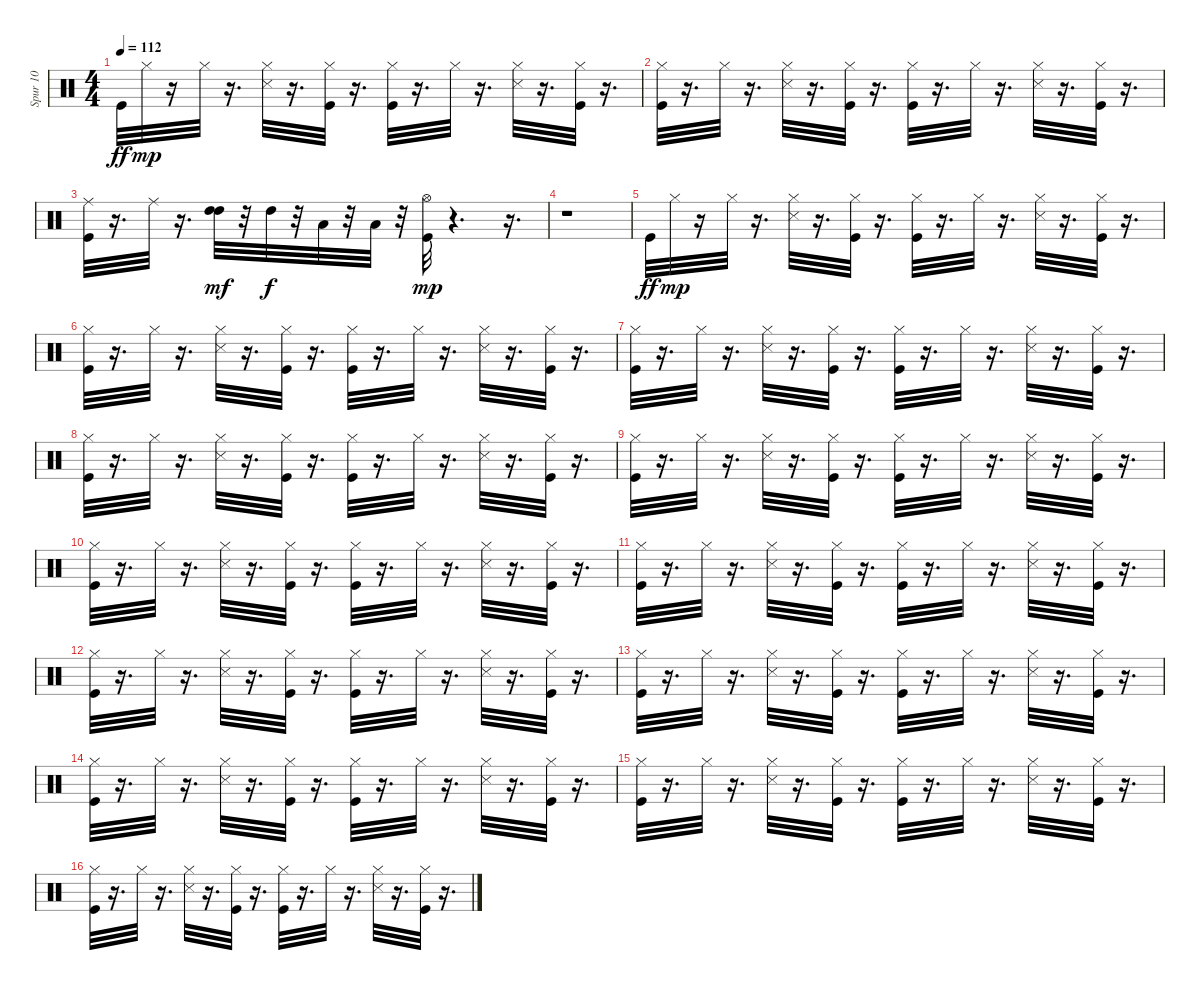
\track ("Spur 10" "Spur 10") {instrument percussion}
\staff {score}
\articulation defaults
\ts (4 4)
\tempo 112
\clef neutral
\ks c "Kick (hit)".32{dy ff} "Hi-Hat (closed)".32{dy mp}
r.16 "Hi-Hat (closed)".32 r.16{d} ("Snare (side stick) 3" "Hi-Hat (closed)").32 r.16{d} ("Kick (hit)" "Hi-Hat (closed)").32 r.16{d} ("Kick (hit)" "Hi-Hat (closed)").32 r.16{d} "Hi-Hat (closed)".32 r.16{d} ("Snare (side stick) 3" "Hi-Hat (closed)").32 r.16{d} ("Kick (hit)" "Hi-Hat (closed)").32 r.16{d} |
("Kick (hit)" "Hi-Hat (closed)").32 r.16{d} "Hi-Hat (closed)".32 r.16{d} ("Snare (side stick) 3" "Hi-Hat (closed)").32 r.16{d} ("Kick (hit)" "Hi-Hat (closed)").32 r.16{d} ("Kick (hit)" "Hi-Hat (closed)").32 r.16{d} "Hi-Hat (closed)".32 r.16{d} ("Snare (side stick) 3" "Hi-Hat (closed)").32 r.16{d} ("Kick (hit)" "Hi-Hat (closed)").32 r.16{d} |
("Ride (middle)" "Kick (hit)").32 r.16{d} "Ride (middle)".32 r.16{d} ("High Tom (hit)" "High Tom (hit)").32{dy mf} r.32 "High Tom (hit)".32{dy f} r.32 "Low Tom (hit)".32 r.32 "Low Floor Tom (hit)".32 r.32 ("Kick (hit)" "Hi-Hat (open)").32{dy mp} r.4{d} r.16{d} |
r.1 |
"Kick (hit)".32{dy ff} "Hi-Hat (closed)".32{dy mp} r.16 "Hi-Hat (closed)".32 r.16{d} ("Snare (side stick) 3" "Hi-Hat (closed)").32 r.16{d} ("Kick (hit)" "Hi-Hat (closed)").32 r.16{d} ("Kick (hit)" "Hi-Hat (closed)").32 r.16{d} "Hi-Hat (closed)".32 r.16{d} ("Snare (side stick) 3" "Hi-Hat (closed)").32 r.16{d} ("Kick (hit)" "Hi-Hat (closed)").32 r.16{d} |
("Kick (hit)" "Hi-Hat (closed)").32 r.16{d} "Hi-Hat (closed)".32 r.16{d} ("Snare (side stick) 3" "Hi-Hat (closed)").32 r.16{d} ("Kick (hit)" "Hi-Hat (closed)").32 r.16{d} ("Kick (hit)" "Hi-Hat (closed)").32 r.16{d} "Hi-Hat (closed)".32 r.16{d} ("Snare (side stick) 3" "Hi-Hat (closed)").32 r.16{d} ("Kick (hit)" "Hi-Hat (closed)").32 r.16{d} |
("Kick (hit)" "Hi-Hat (closed)").32 r.16{d} "Hi-Hat (closed)".32 r.16{d} ("Snare (side stick) 3" "Hi-Hat (closed)").32 r.16{d} ("Kick (hit)" "Hi-Hat (closed)").32 r.16{d} ("Kick (hit)" "Hi-Hat (closed)").32 r.16{d} "Hi-Hat (closed)".32 r.16{d} ("Snare (side stick) 3" "Hi-Hat (closed)").32 r.16{d} ("Kick (hit)" "Hi-Hat (closed)").32 r.16{d} |
("Kick (hit)" "Hi-Hat (closed)").32 r.16{d} "Hi-Hat (closed)".32 r.16{d} ("Snare (side stick) 3" "Hi-Hat (closed)").32 r.16{d} ("Kick (hit)" "Hi-Hat (closed)").32 r.16{d} ("Kick (hit)" "Hi-Hat (closed)").32 r.16{d} "Hi-Hat (closed)".32 r.16{d} ("Snare (side stick) 3" "Hi-Hat (closed)").32 r.16{d} ("Kick (hit)" "Hi-Hat (closed)").32 r.16{d} |
("Kick (hit)" "Hi-Hat (closed)").32 r.16{d} "Hi-Hat (closed)".32 r.16{d} ("Snare (side stick) 3" "Hi-Hat (closed)").32 r.16{d} ("Kick (hit)" "Hi-Hat (closed)").32 r.16{d} ("Kick (hit)" "Hi-Hat (closed)").32 r.16{d} "Hi-Hat (closed)".32 r.16{d} ("Snare (side stick) 3" "Hi-Hat (closed)").32 r.16{d} ("Kick (hit)" "Hi-Hat (closed)").32 r.16{d} |
("Kick (hit)" "Hi-Hat (closed)").32 r.16{d} "Hi-Hat (closed)".32 r.16{d} ("Snare (side stick) 3" "Hi-Hat (closed)").32 r.16{d} ("Kick (hit)" "Hi-Hat (closed)").32 r.16{d} ("Kick (hit)" "Hi-Hat (closed)").32 r.16{d} "Hi-Hat (closed)".32 r.16{d} ("Snare (side stick) 3" "Hi-Hat (closed)").32 r.16{d} ("Kick (hit)" "Hi-Hat (closed)").32 r.16{d} |
("Kick (hit)" "Hi-Hat (closed)").32 r.16{d} "Hi-Hat (closed)".32 r.16{d} ("Snare (side stick) 3" "Hi-Hat (closed)").32 r.16{d} ("Kick (hit)" "Hi-Hat (closed)").32 r.16{d} ("Kick (hit)" "Hi-Hat (closed)").32 r.16{d} "Hi-Hat (closed)".32 r.16{d} ("Snare (side stick) 3" "Hi-Hat (closed)").32 r.16{d} ("Kick (hit)" "Hi-Hat (closed)").32 r.16{d} |
("Kick (hit)" "Hi-Hat (closed)").32 r.16{d} "Hi-Hat (closed)".32 r.16{d} ("Snare (side stick) 3" "Hi-Hat (closed)").32 r.16{d} ("Kick (hit)" "Hi-Hat (closed)").32 r.16{d} ("Kick (hit)" "Hi-Hat (closed)").32 r.16{d} "Hi-Hat (closed)".32 r.16{d} ("Snare (side stick) 3" "Hi-Hat (closed)").32 r.16{d} ("Kick (hit)" "Hi-Hat (closed)").32 r.16{d} |
("Kick (hit)" "Hi-Hat (closed)").32 r.16{d} "Hi-Hat (closed)".32 r.16{d} ("Snare (side stick) 3" "Hi-Hat (closed)").32 r.16{d} ("Kick (hit)" "Hi-Hat (closed)").32 r.16{d} ("Kick (hit)" "Hi-Hat (closed)").32 r.16{d} "Hi-Hat (closed)".32 r.16{d} ("Snare (side stick) 3" "Hi-Hat (closed)").32 r.16{d} ("Kick (hit)" "Hi-Hat (closed)").32 r.16{d} |
("Kick (hit)" "Hi-Hat (closed)").32 r.16{d} "Hi-Hat (closed)".32 r.16{d} ("Snare (side stick) 3" "Hi-Hat (closed)").32 r.16{d} ("Kick (hit)" "Hi-Hat (closed)").32 r.16{d} ("Kick (hit)" "Hi-Hat (closed)").32 r.16{d} "Hi-Hat (closed)".32 r.16{d} ("Snare (side stick) 3" "Hi-Hat (closed)").32 r.16{d} ("Kick (hit)" "Hi-Hat (closed)").32 r.16{d} |
("Kick (hit)" "Hi-Hat (closed)").32 r.16{d} "Hi-Hat (closed)".32 r.16{d} ("Snare (side stick) 3" "Hi-Hat (closed)").32 r.16{d} ("Kick (hit)" "Hi-Hat (closed)").32 r.16{d} ("Kick (hit)" "Hi-Hat (closed)").32 r.16{d} "Hi-Hat (closed)".32 r.16{d} ("Snare (side stick) 3" "Hi-Hat (closed)").32 r.16{d} ("Kick (hit)" "Hi-Hat (closed)").32 r.16{d} |
("Kick (hit)" "Hi-Hat (closed)").32 r.16{d} "Hi-Hat (closed)".32 r.16{d} ("Snare (side stick) 3" "Hi-Hat (closed)").32 r.16{d} ("Kick (hit)" "Hi-Hat (closed)").32 r.16{d} ("Kick (hit)" "Hi-Hat (closed)").32 r.16{d} "Hi-Hat (closed)".32 r.16{d} ("Snare (side stick) 3" "Hi-Hat (closed)").32 r.16{d} ("Kick (hit)" "Hi-Hat (closed)").32 r.16{d}
